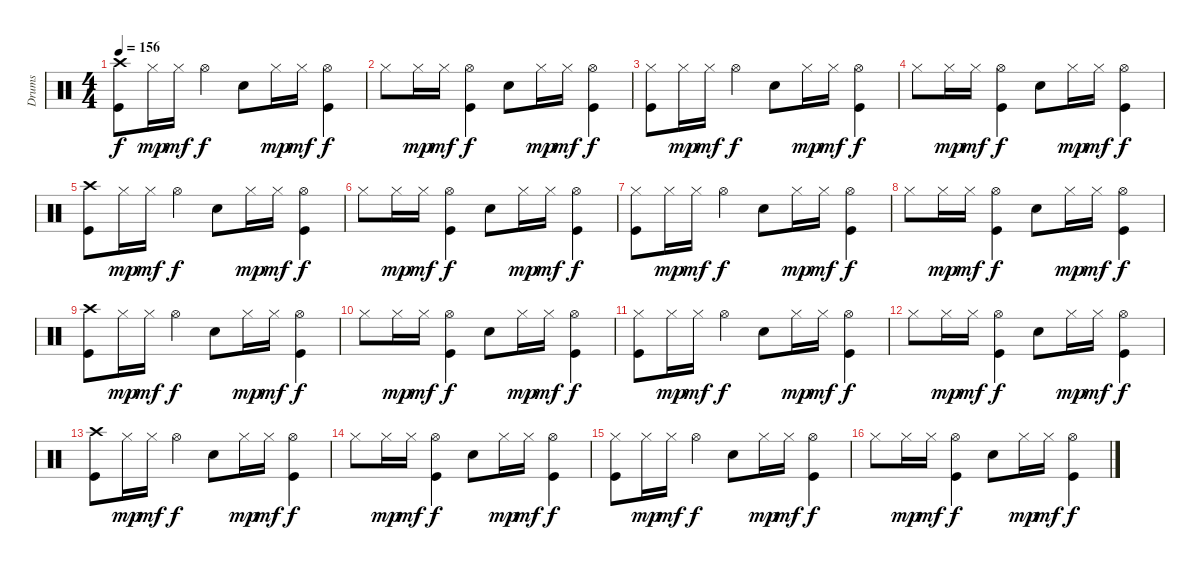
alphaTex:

\track ("Drums" "Drums") {instrument percussion}
\staff {score}
\articulation defaults
\ts (4 4)
\tempo 156
\clef neutral
\ks c
("Crash high (hit)" "Kick (hit)").8{dy f} "Hi-Hat (closed)".16{dy mp} "Hi-Hat (closed)".16{dy mf} "Hi-Hat (open)".4{dy f} "Electric Snare (hit)".8 "Hi-Hat (closed)".16{dy mp} "Hi-Hat (closed)".16{dy mf} ("Hi-Hat (open)" "Kick (hit)").4{dy f} |
"Hi-Hat (closed)".8 "Hi-Hat (closed)".16{dy mp} "Hi-Hat (closed)".16{dy mf} ("Hi-Hat (open)" "Kick (hit)").4{dy f} "Electric Snare (hit)".8 "Hi-Hat (closed)".16{dy mp} "Hi-Hat (closed)".16{dy mf} ("Hi-Hat (open)" "Kick (hit)").4{dy f} |
("Hi-Hat (closed)" "Kick (hit)").8 "Hi-Hat (closed)".16{dy mp} "Hi-Hat (closed)".16{dy mf} "Hi-Hat (open)".4{dy f} "Electric Snare (hit)".8 "Hi-Hat (closed)".16{dy mp} "Hi-Hat (closed)".16{dy mf} ("Hi-Hat (open)" "Kick (hit)").4{dy f} |
"Hi-Hat (closed)".8 "Hi-Hat (closed)".16{dy mp} "Hi-Hat (closed)".16{dy mf} ("Hi-Hat (open)" "Kick (hit)").4{dy f} "Electric Snare (hit)".8 "Hi-Hat (closed)".16{dy mp} "Hi-Hat (closed)".16{dy mf} ("Hi-Hat (open)" "Kick (hit)").4{dy f} |
("Crash high (hit)" "Kick (hit)").8 "Hi-Hat (closed)".16{dy mp} "Hi-Hat (closed)".16{dy mf} "Hi-Hat (open)".4{dy f} "Electric Snare (hit)".8 "Hi-Hat (closed)".16{dy mp} "Hi-Hat (closed)".16{dy mf} ("Hi-Hat (open)" "Kick (hit)").4{dy f} |
"Hi-Hat (closed)".8 "Hi-Hat (closed)".16{dy mp} "Hi-Hat (closed)".16{dy mf} ("Hi-Hat (open)" "Kick (hit)").4{dy f} "Electric Snare (hit)".8 "Hi-Hat (closed)".16{dy mp} "Hi-Hat (closed)".16{dy mf} ("Hi-Hat (open)" "Kick (hit)").4{dy f} |
("Hi-Hat (closed)" "Kick (hit)").8 "Hi-Hat (closed)".16{dy mp} "Hi-Hat (closed)".16{dy mf} "Hi-Hat (open)".4{dy f} "Electric Snare (hit)".8 "Hi-Hat (closed)".16{dy mp} "Hi-Hat (closed)".16{dy mf} ("Hi-Hat (open)" "Kick (hit)").4{dy f} |
"Hi-Hat (closed)".8 "Hi-Hat (closed)".16{dy mp} "Hi-Hat (closed)".16{dy mf} ("Hi-Hat (open)" "Kick (hit)").4{dy f} "Electric Snare (hit)".8 "Hi-Hat (closed)".16{dy mp} "Hi-Hat (closed)".16{dy mf} ("Hi-Hat (open)" "Kick (hit)").4{dy f} |
("Crash high (hit)" "Kick (hit)").8 "Hi-Hat (closed)".16{dy mp} "Hi-Hat (closed)".16{dy mf} "Hi-Hat (open)".4{dy f} "Electric Snare (hit)".8 "Hi-Hat (closed)".16{dy mp} "Hi-Hat (closed)".16{dy mf} ("Hi-Hat (open)" "Kick (hit)").4{dy f} |
"Hi-Hat (closed)".8 "Hi-Hat (closed)".16{dy mp} "Hi-Hat (closed)".16{dy mf} ("Hi-Hat (open)" "Kick (hit)").4{dy f} "Electric Snare (hit)".8 "Hi-Hat (closed)".16{dy mp} "Hi-Hat (closed)".16{dy mf} ("Hi-Hat (open)" "Kick (hit)").4{dy f} |
("Hi-Hat (closed)" "Kick (hit)").8 "Hi-Hat (closed)".16{dy mp} "Hi-Hat (closed)".16{dy mf} "Hi-Hat (open)".4{dy f} "Electric Snare (hit)".8 "Hi-Hat (closed)".16{dy mp} "Hi-Hat (closed)".16{dy mf} ("Hi-Hat (open)" "Kick (hit)").4{dy f} |
"Hi-Hat (closed)".8 "Hi-Hat (closed)".16{dy mp} "Hi-Hat (closed)".16{dy mf} ("Hi-Hat (open)" "Kick (hit)").4{dy f} "Electric Snare (hit)".8 "Hi-Hat (closed)".16{dy mp} "Hi-Hat (closed)".16{dy mf} ("Hi-Hat (open)" "Kick (hit)").4{dy f} |
("Crash high (hit)" "Kick (hit)").8 "Hi-Hat (closed)".16{dy mp} "Hi-Hat (closed)".16{dy mf} "Hi-Hat (open)".4{dy f} "Electric Snare (hit)".8 "Hi-Hat (closed)".16{dy mp} "Hi-Hat (closed)".16{dy mf} ("Hi-Hat (open)" "Kick (hit)").4{dy f} |
"Hi-Hat (closed)".8 "Hi-Hat (closed)".16{dy mp} "Hi-Hat (closed)".16{dy mf} ("Hi-Hat (open)" "Kick (hit)").4{dy f} "Electric Snare (hit)".8 "Hi-Hat (closed)".16{dy mp} "Hi-Hat (closed)".16{dy mf} ("Hi-Hat (open)" "Kick (hit)").4{dy f} |
("Hi-Hat (closed)" "Kick (hit)").8 "Hi-Hat (closed)".16{dy mp} "Hi-Hat (closed)".16{dy mf} "Hi-Hat (open)".4{dy f} "Electric Snare (hit)".8 "Hi-Hat (closed)".16{dy mp} "Hi-Hat (closed)".16{dy mf} ("Hi-Hat (open)" "Kick (hit)").4{dy f} |
"Hi-Hat (closed)".8 "Hi-Hat (closed)".16{dy mp} "Hi-Hat (closed)".16{dy mf} ("Hi-Hat (open)" "Kick (hit)").4{dy f} "Electric Snare (hit)".8 "Hi-Hat (closed)".16{dy mp} "Hi-Hat (closed)".16{dy mf} ("Hi-Hat (open)" "Kick (hit)").4{dy f}
